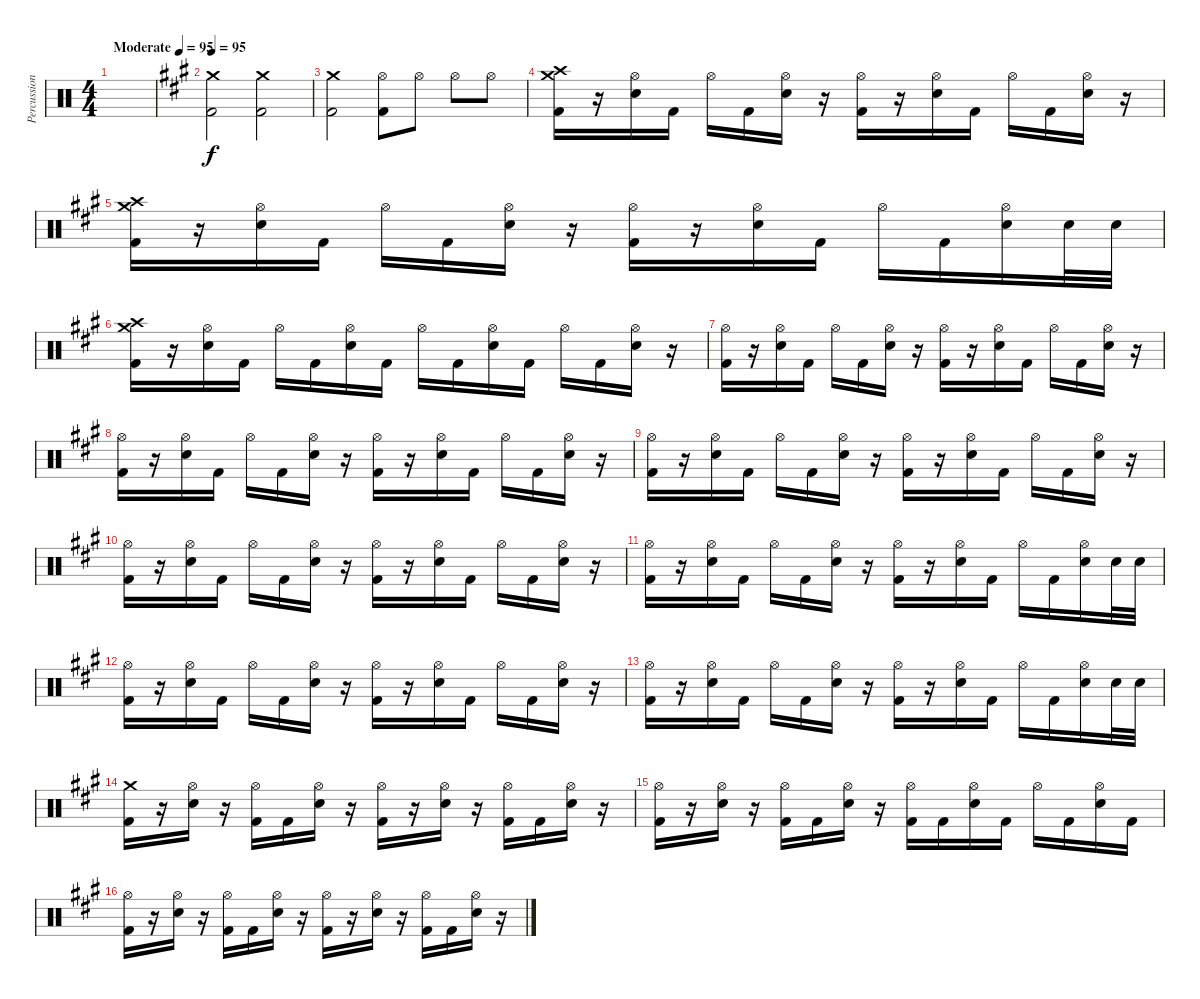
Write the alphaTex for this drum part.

\track ("Percussion" "Percussion") {instrument percussion}
\staff {score}
\articulation defaults
\ts (4 4)
\tempo (95 "Moderate")
\clef neutral
\ks c
|
\tempo 95
\ks a
("Kick (hit) 2" "Crash medium (hit)").2 ("Kick (hit) 2" "Crash medium (hit)").2 |
("Kick (hit) 2" "Crash medium (hit)").2 ("Kick (hit) 2" "Hi-Hat (open)").8 "Hi-Hat (open)".8 "Hi-Hat (open)".8 "Hi-Hat (open)".8 |
("Crash high (hit)" "Crash medium (hit)" "Kick (hit) 2").16 r.16 ("Hi-Hat (open)" "Electric Snare (hit)").16 "Kick (hit) 2".16 "Hi-Hat (open)".16 "Kick (hit) 2".16 ("Hi-Hat (open)" "Electric Snare (hit)").16 r.16 ("Hi-Hat (open)" "Kick (hit) 2").16 r.16 ("Hi-Hat (open)" "Electric Snare (hit)").16 "Kick (hit) 2".16 "Hi-Hat (open)".16 "Kick (hit) 2".16 ("Hi-Hat (open)" "Electric Snare (hit)").16 r.16 |
("Crash high (hit)" "Crash medium (hit)" "Kick (hit) 2").16 r.16 ("Hi-Hat (open)" "Electric Snare (hit)").16 "Kick (hit) 2".16 "Hi-Hat (open)".16 "Kick (hit) 2".16 ("Hi-Hat (open)" "Electric Snare (hit)").16 r.16 ("Hi-Hat (open)" "Kick (hit) 2").16 r.16 ("Hi-Hat (open)" "Electric Snare (hit)").16 "Kick (hit) 2".16 "Hi-Hat (open)".16 "Kick (hit) 2".16 ("Hi-Hat (open)" "Electric Snare (hit)").16 "Electric Snare (hit)".32 "Electric Snare (hit)".32 |
("Crash high (hit)" "Crash medium (hit)" "Kick (hit) 2").16 r.16 ("Hi-Hat (open)" "Electric Snare (hit)").16 "Kick (hit) 2".16 "Hi-Hat (open)".16 "Kick (hit) 2".16 ("Hi-Hat (open)" "Electric Snare (hit)").16 "Kick (hit) 2".16 "Hi-Hat (open)".16 "Kick (hit) 2".16 ("Hi-Hat (open)" "Electric Snare (hit)").16 "Kick (hit) 2".16 "Hi-Hat (open)".16 "Kick (hit) 2".16 ("Hi-Hat (open)" "Electric Snare (hit)").16 r.16 |
("Hi-Hat (open)" "Kick (hit) 2").16 r.16 ("Hi-Hat (open)" "Electric Snare (hit)").16 "Kick (hit) 2".16 "Hi-Hat (open)".16 "Kick (hit) 2".16 ("Hi-Hat (open)" "Electric Snare (hit)").16 r.16 ("Hi-Hat (open)" "Kick (hit) 2").16 r.16 ("Hi-Hat (open)" "Electric Snare (hit)").16 "Kick (hit) 2".16 "Hi-Hat (open)".16 "Kick (hit) 2".16 ("Hi-Hat (open)" "Electric Snare (hit)").16 r.16 |
("Hi-Hat (open)" "Kick (hit) 2").16 r.16 ("Hi-Hat (open)" "Electric Snare (hit)").16 "Kick (hit) 2".16 "Hi-Hat (open)".16 "Kick (hit) 2".16 ("Hi-Hat (open)" "Electric Snare (hit)").16 r.16 ("Hi-Hat (open)" "Kick (hit) 2").16 r.16 ("Hi-Hat (open)" "Electric Snare (hit)").16 "Kick (hit) 2".16 "Hi-Hat (open)".16 "Kick (hit) 2".16 ("Hi-Hat (open)" "Electric Snare (hit)").16 r.16 |
("Hi-Hat (open)" "Kick (hit) 2").16 r.16 ("Hi-Hat (open)" "Electric Snare (hit)").16 "Kick (hit) 2".16 "Hi-Hat (open)".16 "Kick (hit) 2".16 ("Hi-Hat (open)" "Electric Snare (hit)").16 r.16 ("Hi-Hat (open)" "Kick (hit) 2").16 r.16 ("Hi-Hat (open)" "Electric Snare (hit)").16 "Kick (hit) 2".16 "Hi-Hat (open)".16 "Kick (hit) 2".16 ("Hi-Hat (open)" "Electric Snare (hit)").16 r.16 |
("Hi-Hat (open)" "Kick (hit) 2").16 r.16 ("Hi-Hat (open)" "Electric Snare (hit)").16 "Kick (hit) 2".16 "Hi-Hat (open)".16 "Kick (hit) 2".16 ("Hi-Hat (open)" "Electric Snare (hit)").16 r.16 ("Hi-Hat (open)" "Kick (hit) 2").16 r.16 ("Hi-Hat (open)" "Electric Snare (hit)").16 "Kick (hit) 2".16 "Hi-Hat (open)".16 "Kick (hit) 2".16 ("Hi-Hat (open)" "Electric Snare (hit)").16 r.16 |
("Hi-Hat (open)" "Kick (hit) 2").16 r.16 ("Hi-Hat (open)" "Electric Snare (hit)").16 "Kick (hit) 2".16 "Hi-Hat (open)".16 "Kick (hit) 2".16 ("Hi-Hat (open)" "Electric Snare (hit)").16 r.16 ("Hi-Hat (open)" "Kick (hit) 2").16 r.16 ("Hi-Hat (open)" "Electric Snare (hit)").16 "Kick (hit) 2".16 "Hi-Hat (open)".16 "Kick (hit) 2".16 ("Hi-Hat (open)" "Electric Snare (hit)").16 "Electric Snare (hit)".32 "Electric Snare (hit)".32 |
("Hi-Hat (open)" "Kick (hit) 2").16 r.16 ("Hi-Hat (open)" "Electric Snare (hit)").16 "Kick (hit) 2".16 "Hi-Hat (open)".16 "Kick (hit) 2".16 ("Hi-Hat (open)" "Electric Snare (hit)").16 r.16 ("Hi-Hat (open)" "Kick (hit) 2").16 r.16 ("Hi-Hat (open)" "Electric Snare (hit)").16 "Kick (hit) 2".16 "Hi-Hat (open)".16 "Kick (hit) 2".16 ("Hi-Hat (open)" "Electric Snare (hit)").16 r.16 |
("Hi-Hat (open)" "Kick (hit) 2").16 r.16 ("Hi-Hat (open)" "Electric Snare (hit)").16 "Kick (hit) 2".16 "Hi-Hat (open)".16 "Kick (hit) 2".16 ("Hi-Hat (open)" "Electric Snare (hit)").16 r.16 ("Hi-Hat (open)" "Kick (hit) 2").16 r.16 ("Hi-Hat (open)" "Electric Snare (hit)").16 "Kick (hit) 2".16 "Hi-Hat (open)".16 "Kick (hit) 2".16 ("Hi-Hat (open)" "Electric Snare (hit)").16 "Electric Snare (hit)".32 "Electric Snare (hit)".32 |
("Crash medium (hit)" "Kick (hit) 2").16 r.16 ("Hi-Hat (open)" "Electric Snare (hit)").16 r.16 ("Hi-Hat (open)" "Kick (hit) 2").16 "Kick (hit) 2".16 ("Hi-Hat (open)" "Electric Snare (hit)").16 r.16 ("Hi-Hat (open)" "Kick (hit) 2").16 r.16 ("Hi-Hat (open)" "Electric Snare (hit)").16 r.16 ("Hi-Hat (open)" "Kick (hit) 2").16 "Kick (hit) 2".16 ("Hi-Hat (open)" "Electric Snare (hit)").16 r.16 |
("Hi-Hat (open)" "Kick (hit) 2").16 r.16 ("Hi-Hat (open)" "Electric Snare (hit)").16 r.16 ("Hi-Hat (open)" "Kick (hit) 2").16 "Kick (hit) 2".16 ("Hi-Hat (open)" "Electric Snare (hit)").16 r.16 ("Hi-Hat (open)" "Kick (hit) 2").16 "Kick (hit) 2".16 ("Hi-Hat (open)" "Electric Snare (hit)").16 "Kick (hit) 2".16 "Hi-Hat (open)".16 "Kick (hit) 2".16 ("Hi-Hat (open)" "Electric Snare (hit)").16 "Kick (hit) 2".16 |
("Hi-Hat (open)" "Kick (hit) 2").16 r.16 ("Hi-Hat (open)" "Electric Snare (hit)").16 r.16 ("Hi-Hat (open)" "Kick (hit) 2").16 "Kick (hit) 2".16 ("Hi-Hat (open)" "Electric Snare (hit)").16 r.16 ("Hi-Hat (open)" "Kick (hit) 2").16 r.16 ("Hi-Hat (open)" "Electric Snare (hit)").16 r.16 ("Hi-Hat (open)" "Kick (hit) 2").16 "Kick (hit) 2".16 ("Hi-Hat (open)" "Electric Snare (hit)").16 r.16
